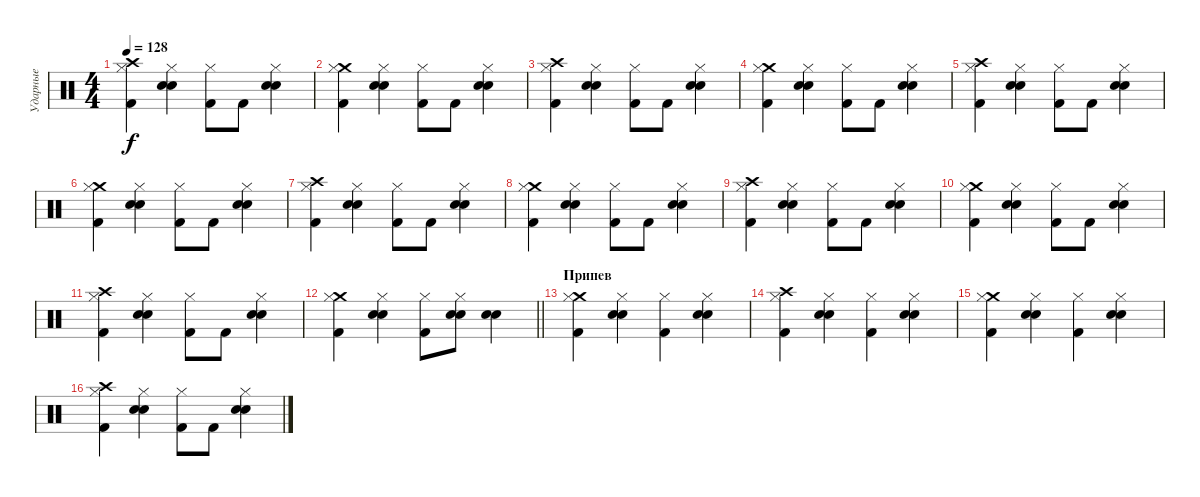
\track ("Ударные" "Ударные") {instrument percussion}
\staff {score}
\articulation defaults
\ts (4 4)
\tempo 128
\clef neutral
\ks c
("Crash high (hit)" "Hi-Hat (closed)" "Kick (hit) 2").4{dy f} ("Electric Snare (hit)" "Snare (hit) 2" "Hi-Hat (closed)").4 ("Hi-Hat (closed)" "Kick (hit) 2").8 "Kick (hit) 2".8 ("Electric Snare (hit)" "Snare (hit) 2" "Hi-Hat (closed)").4 |
("Crash medium (hit)" "Hi-Hat (closed)" "Kick (hit) 2").4 ("Electric Snare (hit)" "Snare (hit) 2" "Hi-Hat (closed)").4 ("Hi-Hat (closed)" "Kick (hit) 2").8 "Kick (hit) 2".8 ("Electric Snare (hit)" "Snare (hit) 2" "Hi-Hat (closed)").4 |
("Crash high (hit)" "Hi-Hat (closed)" "Kick (hit) 2").4 ("Electric Snare (hit)" "Snare (hit) 2" "Hi-Hat (closed)").4 ("Hi-Hat (closed)" "Kick (hit) 2").8 "Kick (hit) 2".8 ("Electric Snare (hit)" "Snare (hit) 2" "Hi-Hat (closed)").4 |
("Crash medium (hit)" "Hi-Hat (closed)" "Kick (hit) 2").4 ("Electric Snare (hit)" "Snare (hit) 2" "Hi-Hat (closed)").4 ("Hi-Hat (closed)" "Kick (hit) 2").8 "Kick (hit) 2".8 ("Electric Snare (hit)" "Snare (hit) 2" "Hi-Hat (closed)").4 |
("Crash high (hit)" "Hi-Hat (closed)" "Kick (hit) 2").4 ("Electric Snare (hit)" "Snare (hit) 2" "Hi-Hat (closed)").4 ("Hi-Hat (closed)" "Kick (hit) 2").8 "Kick (hit) 2".8 ("Electric Snare (hit)" "Snare (hit) 2" "Hi-Hat (closed)").4 |
("Crash medium (hit)" "Hi-Hat (closed)" "Kick (hit) 2").4 ("Electric Snare (hit)" "Snare (hit) 2" "Hi-Hat (closed)").4 ("Hi-Hat (closed)" "Kick (hit) 2").8 "Kick (hit) 2".8 ("Electric Snare (hit)" "Snare (hit) 2" "Hi-Hat (closed)").4 |
("Crash high (hit)" "Hi-Hat (closed)" "Kick (hit) 2").4 ("Electric Snare (hit)" "Snare (hit) 2" "Hi-Hat (closed)").4 ("Hi-Hat (closed)" "Kick (hit) 2").8 "Kick (hit) 2".8 ("Electric Snare (hit)" "Snare (hit) 2" "Hi-Hat (closed)").4 |
("Crash medium (hit)" "Hi-Hat (closed)" "Kick (hit) 2").4 ("Electric Snare (hit)" "Snare (hit) 2" "Hi-Hat (closed)").4 ("Hi-Hat (closed)" "Kick (hit) 2").8 "Kick (hit) 2".8 ("Electric Snare (hit)" "Snare (hit) 2" "Hi-Hat (closed)").4 |
("Crash high (hit)" "Hi-Hat (closed)" "Kick (hit) 2").4 ("Electric Snare (hit)" "Snare (hit) 2" "Hi-Hat (closed)").4 ("Hi-Hat (closed)" "Kick (hit) 2").8 "Kick (hit) 2".8 ("Electric Snare (hit)" "Snare (hit) 2" "Hi-Hat (closed)").4 |
("Crash medium (hit)" "Hi-Hat (closed)" "Kick (hit) 2").4 ("Electric Snare (hit)" "Snare (hit) 2" "Hi-Hat (closed)").4 ("Hi-Hat (closed)" "Kick (hit) 2").8 "Kick (hit) 2".8 ("Electric Snare (hit)" "Snare (hit) 2" "Hi-Hat (closed)").4 |
("Crash high (hit)" "Hi-Hat (closed)" "Kick (hit) 2").4 ("Electric Snare (hit)" "Snare (hit) 2" "Hi-Hat (closed)").4 ("Hi-Hat (closed)" "Kick (hit) 2").8 "Kick (hit) 2".8 ("Electric Snare (hit)" "Snare (hit) 2" "Hi-Hat (closed)").4 |
\barLineRight lightlight
("Crash medium (hit)" "Hi-Hat (closed)" "Kick (hit) 2").4 ("Electric Snare (hit)" "Snare (hit) 2" "Hi-Hat (closed)").4 ("Hi-Hat (closed)" "Kick (hit) 2").8 ("Electric Snare (hit)" "Snare (hit) 2" "Hi-Hat (closed)").8 ("Electric Snare (hit)" "Snare (hit) 2").4 |
\section ("" "Припев")
("Crash medium (hit)" "Hi-Hat (closed)" "Kick (hit) 2").4 ("Electric Snare (hit)" "Snare (hit) 2" "Hi-Hat (closed)").4 ("Hi-Hat (closed)" "Kick (hit) 2").4 ("Electric Snare (hit)" "Snare (hit) 2" "Hi-Hat (closed)").4 |
("Crash high (hit)" "Hi-Hat (closed)" "Kick (hit) 2").4 ("Electric Snare (hit)" "Snare (hit) 2" "Hi-Hat (closed)").4 ("Hi-Hat (closed)" "Kick (hit) 2").4 ("Electric Snare (hit)" "Snare (hit) 2" "Hi-Hat (closed)").4 |
("Crash medium (hit)" "Hi-Hat (closed)" "Kick (hit) 2").4 ("Electric Snare (hit)" "Snare (hit) 2" "Hi-Hat (closed)").4 ("Hi-Hat (closed)" "Kick (hit) 2").4 ("Electric Snare (hit)" "Snare (hit) 2" "Hi-Hat (closed)").4 |
("Crash high (hit)" "Hi-Hat (closed)" "Kick (hit) 2").4 ("Electric Snare (hit)" "Snare (hit) 2" "Hi-Hat (closed)").4 ("Hi-Hat (closed)" "Kick (hit) 2").8 "Kick (hit) 2".8 ("Electric Snare (hit)" "Snare (hit) 2" "Hi-Hat (closed)").4
